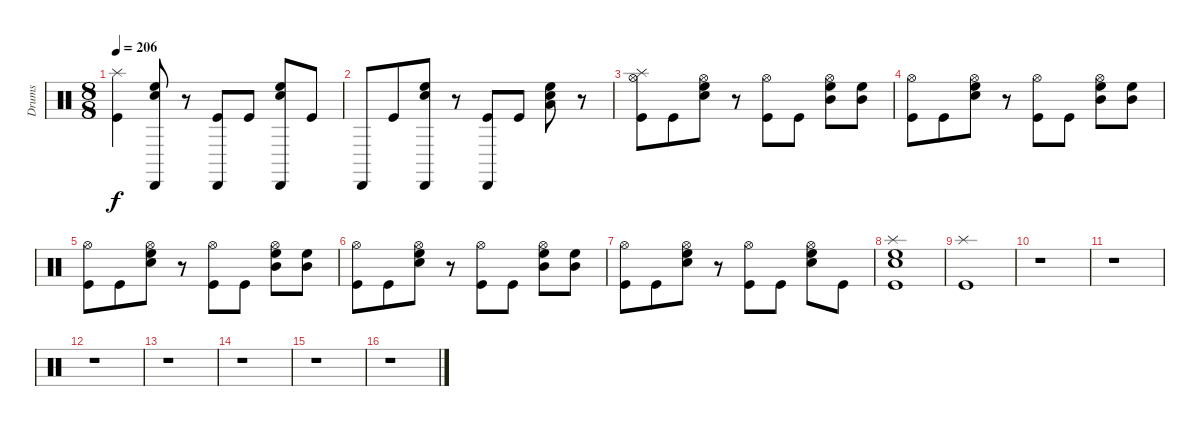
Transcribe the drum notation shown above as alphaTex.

\track ("Drums" "Drums") {instrument percussion}
\staff {score}
\articulation defaults
\ts (8 8)
\tempo 206
\clef neutral
\ks c
("Splash (hit)" "Kick (hit)").4{dy f} ("Cabasa (hit)" "High Floor Tom (hit)" "Electric Snare (hit)").8 r.8 ("Cabasa (hit)" "Kick (hit)").8 "Kick (hit)".8 ("Cabasa (hit)" "High Floor Tom (hit)" "Electric Snare (hit)").8 "Kick (hit)".8 |
"Cabasa (hit)".8 "Kick (hit)".8 ("Cabasa (hit)" "High Floor Tom (hit)" "Electric Snare (hit)").8 r.8 ("Cabasa (hit)" "Kick (hit)").8 "Kick (hit)".8 ("Low Tom (hit)" "High Floor Tom (hit)" "Electric Snare (hit)").8 r.8 |
("Splash (hit)" "Hi-Hat (open)" "Kick (hit)").8 "Kick (hit)".8 ("Hi-Hat (open)" "High Floor Tom (hit)" "Electric Snare (hit)").8 r.8 ("Hi-Hat (open)" "Kick (hit)").8 "Kick (hit)".8 ("Hi-Hat (open)" "Mid Tom (hit)" "High Floor Tom (hit)").8 ("Mid Tom (hit)" "High Floor Tom (hit)").8 |
("Hi-Hat (open)" "Kick (hit)").8 "Kick (hit)".8 ("Hi-Hat (open)" "High Floor Tom (hit)" "Electric Snare (hit)").8 r.8 ("Hi-Hat (open)" "Kick (hit)").8 "Kick (hit)".8 ("Hi-Hat (open)" "Mid Tom (hit)" "High Floor Tom (hit)").8 ("Mid Tom (hit)" "High Floor Tom (hit)").8 |
("Hi-Hat (open)" "Kick (hit)").8 "Kick (hit)".8 ("Hi-Hat (open)" "High Floor Tom (hit)" "Electric Snare (hit)").8 r.8 ("Hi-Hat (open)" "Kick (hit)").8 "Kick (hit)".8 ("Hi-Hat (open)" "Mid Tom (hit)" "High Floor Tom (hit)").8 ("Mid Tom (hit)" "High Floor Tom (hit)").8 |
("Hi-Hat (open)" "Kick (hit)").8 "Kick (hit)".8 ("Hi-Hat (open)" "High Floor Tom (hit)" "Electric Snare (hit)").8 r.8 ("Hi-Hat (open)" "Kick (hit)").8 "Kick (hit)".8 ("Hi-Hat (open)" "Mid Tom (hit)" "High Floor Tom (hit)").8 ("Mid Tom (hit)" "High Floor Tom (hit)").8 |
("Hi-Hat (open)" "Kick (hit)").8 "Kick (hit)".8 ("Hi-Hat (open)" "High Floor Tom (hit)" "Electric Snare (hit)").8 r.8 ("Hi-Hat (open)" "Kick (hit)").8 "Kick (hit)".8 ("High Floor Tom (hit)" "Electric Snare (hit)" "Hi-Hat (open)").8 "Kick (hit)".8 |
("Splash (hit)" "High Floor Tom (hit)" "Electric Snare (hit)" "Kick (hit)").1 |
("Splash (hit)" "Kick (hit)").1 |
r.1 |
r.1 |
r.1 |
r.1 |
r.1 |
r.1 |
r.1
